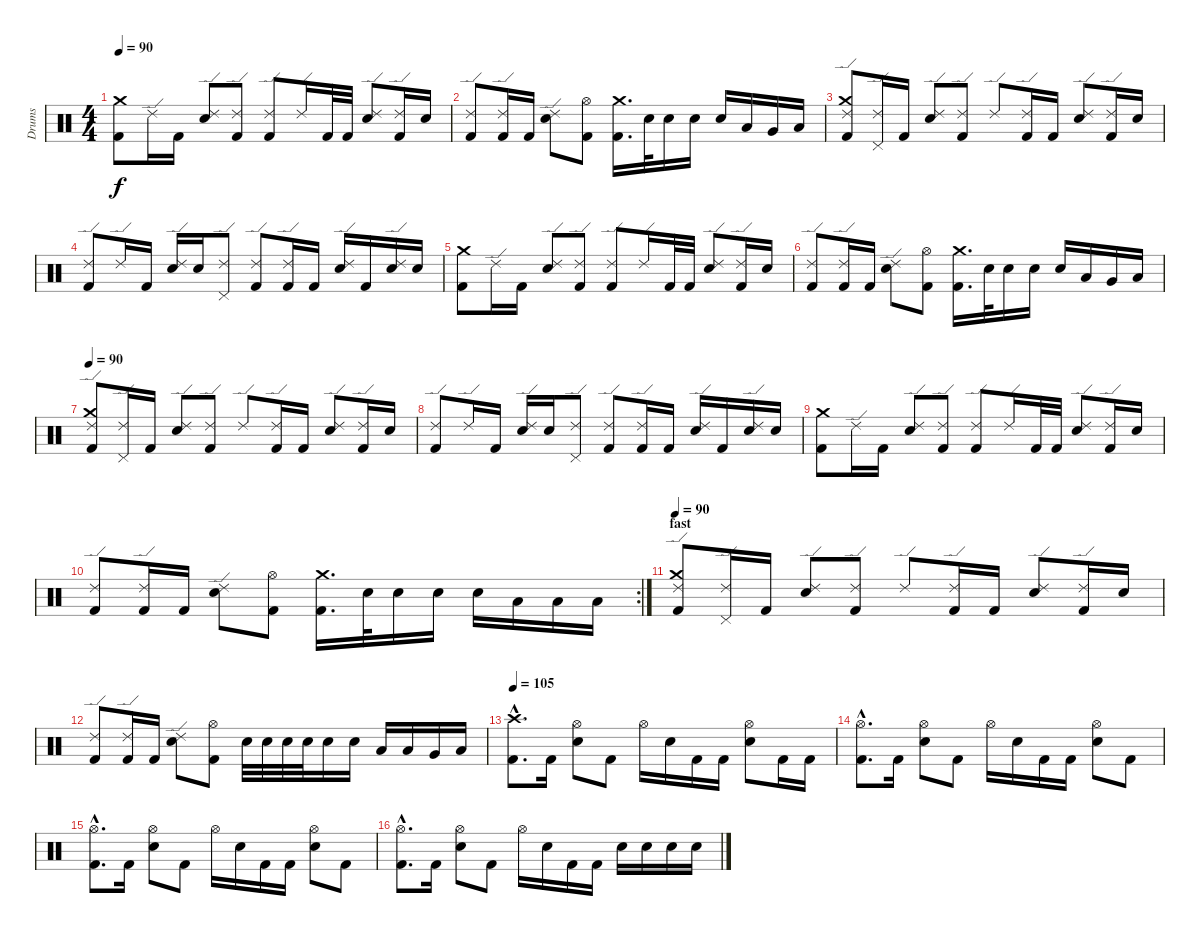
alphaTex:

\track ("Drums" "Drums") {instrument percussion}
\staff {score}
\articulation defaults
\ts (4 4)
\tempo 90
\clef neutral
\ks c
("Kick (hit) 2" "Crash medium (hit)").8{dy f} "Ride (edge) 2".16 "Kick (hit) 2".16 ("Electric Snare (hit)" "Ride (edge) 2").8 ("Kick (hit) 2" "Ride (edge) 2").8 ("Kick (hit) 2" "Ride (edge) 2").8 "Ride (edge) 2".16 "Kick (hit) 2".32 "Kick (hit) 2".32 ("Electric Snare (hit)" "Ride (edge) 2").8 ("Kick (hit) 2" "Ride (edge) 2").16 "Electric Snare (hit)".16 |
("Kick (hit) 2" "Ride (edge) 2").8 ("Kick (hit) 2" "Ride (edge) 2").16 "Kick (hit) 2".16 ("Electric Snare (hit)" "Ride (edge) 2").8 ("Hi-Hat (open)" "Kick (hit) 2").8 ("Crash medium (hit)" "Kick (hit) 2").16{d} "Electric Snare (hit)".32 "Electric Snare (hit)".16 "Electric Snare (hit)".16 "Electric Snare (hit)".16 "Low Tom (hit)".16 "Very Low Tom (hit)".16 "Low Floor Tom (hit)".16 |
("Kick (hit) 2" "Crash medium (hit)" "Ride (edge) 2").8 ("Pedal Hi-Hat (hit)" "Ride (edge) 2").16 "Kick (hit) 2".16 ("Electric Snare (hit)" "Ride (edge) 2").8 ("Kick (hit) 2" "Ride (edge) 2").8 "Ride (edge) 2".8 ("Kick (hit) 2" "Ride (edge) 2").16 "Kick (hit) 2".16 ("Electric Snare (hit)" "Ride (edge) 2").8 ("Kick (hit) 2" "Ride (edge) 2").16 "Electric Snare (hit)".16 |
("Kick (hit) 2" "Ride (edge) 2").8 "Ride (edge) 2".16 "Kick (hit) 2".16 ("Electric Snare (hit)" "Ride (edge) 2").16 "Electric Snare (hit)".16 ("Ride (edge) 2" "Pedal Hi-Hat (hit)").8 ("Kick (hit) 2" "Ride (edge) 2").8 ("Kick (hit) 2" "Ride (edge) 2").16 "Kick (hit) 2".16 ("Electric Snare (hit)" "Ride (edge) 2").16 "Kick (hit) 2".16 ("Electric Snare (hit)" "Ride (edge) 2").16 "Electric Snare (hit)".16 |
("Kick (hit) 2" "Crash medium (hit)").8 "Ride (edge) 2".16 "Kick (hit) 2".16 ("Electric Snare (hit)" "Ride (edge) 2").8 ("Kick (hit) 2" "Ride (edge) 2").8 ("Kick (hit) 2" "Ride (edge) 2").8 "Ride (edge) 2".16 "Kick (hit) 2".32 "Kick (hit) 2".32 ("Electric Snare (hit)" "Ride (edge) 2").8 ("Kick (hit) 2" "Ride (edge) 2").16 "Electric Snare (hit)".16 |
("Kick (hit) 2" "Ride (edge) 2").8 ("Kick (hit) 2" "Ride (edge) 2").16 "Kick (hit) 2".16 ("Electric Snare (hit)" "Ride (edge) 2").8 ("Hi-Hat (open)" "Kick (hit) 2").8 ("Crash medium (hit)" "Kick (hit) 2").16{d} "Electric Snare (hit)".32 "Electric Snare (hit)".16 "Electric Snare (hit)".16 "Electric Snare (hit)".16 "Low Tom (hit)".16 "Very Low Tom (hit)".16 "Low Floor Tom (hit)".16 |
\tempo 90
("Kick (hit) 2" "Crash medium (hit)" "Ride (edge) 2").8 ("Pedal Hi-Hat (hit)" "Ride (edge) 2").16 "Kick (hit) 2".16 ("Electric Snare (hit)" "Ride (edge) 2").8 ("Kick (hit) 2" "Ride (edge) 2").8 "Ride (edge) 2".8 ("Kick (hit) 2" "Ride (edge) 2").16 "Kick (hit) 2".16 ("Electric Snare (hit)" "Ride (edge) 2").8 ("Kick (hit) 2" "Ride (edge) 2").16 "Electric Snare (hit)".16 |
("Kick (hit) 2" "Ride (edge) 2").8 "Ride (edge) 2".16 "Kick (hit) 2".16 ("Electric Snare (hit)" "Ride (edge) 2").16 "Electric Snare (hit)".16 ("Ride (edge) 2" "Pedal Hi-Hat (hit)").8 ("Kick (hit) 2" "Ride (edge) 2").8 ("Kick (hit) 2" "Ride (edge) 2").16 "Kick (hit) 2".16 ("Electric Snare (hit)" "Ride (edge) 2").16 "Kick (hit) 2".16 ("Electric Snare (hit)" "Ride (edge) 2").16 "Electric Snare (hit)".16 |
("Kick (hit) 2" "Crash medium (hit)").8 "Ride (edge) 2".16 "Kick (hit) 2".16 ("Electric Snare (hit)" "Ride (edge) 2").8 ("Kick (hit) 2" "Ride (edge) 2").8 ("Kick (hit) 2" "Ride (edge) 2").8 "Ride (edge) 2".16 "Kick (hit) 2".32 "Kick (hit) 2".32 ("Electric Snare (hit)" "Ride (edge) 2").8 ("Kick (hit) 2" "Ride (edge) 2").16 "Electric Snare (hit)".16 |
\rc 2
("Kick (hit) 2" "Ride (edge) 2").8 ("Kick (hit) 2" "Ride (edge) 2").16 "Kick (hit) 2".16 ("Electric Snare (hit)" "Ride (edge) 2").8 ("Hi-Hat (open)" "Kick (hit) 2").8 ("Crash medium (hit)" "Kick (hit) 2").16{d} "Electric Snare (hit)".32 "Electric Snare (hit)".16 "Electric Snare (hit)".16 "Electric Snare (hit)".16 "Low Tom (hit)".16 "Low Tom (hit)".16 "Low Tom (hit)".16 |
\section ("" "fast")
\tempo 90
("Kick (hit) 2" "Crash medium (hit)" "Ride (edge) 2").8 ("Pedal Hi-Hat (hit)" "Ride (edge) 2").16 "Kick (hit) 2".16 ("Electric Snare (hit)" "Ride (edge) 2").8 ("Kick (hit) 2" "Ride (edge) 2").8 "Ride (edge) 2".8 ("Kick (hit) 2" "Ride (edge) 2").16 "Kick (hit) 2".16 ("Electric Snare (hit)" "Ride (edge) 2").8 ("Kick (hit) 2" "Ride (edge) 2").16 "Electric Snare (hit)".16 |
("Kick (hit) 2" "Ride (edge) 2").8 ("Kick (hit) 2" "Ride (edge) 2").16 "Kick (hit) 2".16 ("Electric Snare (hit)" "Ride (edge) 2").8 ("Hi-Hat (open)" "Kick (hit) 2").8 "Electric Snare (hit)".32 "Electric Snare (hit)".32 "Electric Snare (hit)".32 "Electric Snare (hit)".32 "Electric Snare (hit)".16 "Electric Snare (hit)".16 "Low Tom (hit)".16 "Low Tom (hit)".16 "Very Low Tom (hit)".16 "Low Floor Tom (hit)".16 |
\tempo 105
("Crash high (hit)"{hac} "Kick (hit) 2"{hac}).8{d} "Kick (hit) 2".16 ("Hi-Hat (open)" "Electric Snare (hit)").8 "Kick (hit) 2".8 "Hi-Hat (open)".16 "Electric Snare (hit)".16 "Kick (hit) 2".16 "Kick (hit) 2".16 ("Hi-Hat (open)" "Electric Snare (hit)").8 "Kick (hit) 2".16 "Kick (hit) 2".16 |
("Hi-Hat (open)"{hac} "Kick (hit) 2"{hac}).8{d} "Kick (hit) 2".16 ("Hi-Hat (open)" "Electric Snare (hit)").8 "Kick (hit) 2".8 "Hi-Hat (open)".16 "Electric Snare (hit)".16 "Kick (hit) 2".16 "Kick (hit) 2".16 ("Hi-Hat (open)" "Electric Snare (hit)").8 "Kick (hit) 2".8 |
("Hi-Hat (open)"{hac} "Kick (hit) 2"{hac}).8{d} "Kick (hit) 2".16 ("Hi-Hat (open)" "Electric Snare (hit)").8 "Kick (hit) 2".8 "Hi-Hat (open)".16 "Electric Snare (hit)".16 "Kick (hit) 2".16 "Kick (hit) 2".16 ("Hi-Hat (open)" "Electric Snare (hit)").8 "Kick (hit) 2".8 |
("Hi-Hat (open)"{hac} "Kick (hit) 2"{hac}).8{d} "Kick (hit) 2".16 ("Hi-Hat (open)" "Electric Snare (hit)").8 "Kick (hit) 2".8 "Hi-Hat (open)".16 "Electric Snare (hit)".16 "Kick (hit) 2".16 "Kick (hit) 2".16 "Electric Snare (hit)".16 "Electric Snare (hit)".16 "Electric Snare (hit)".16 "Electric Snare (hit)".16
